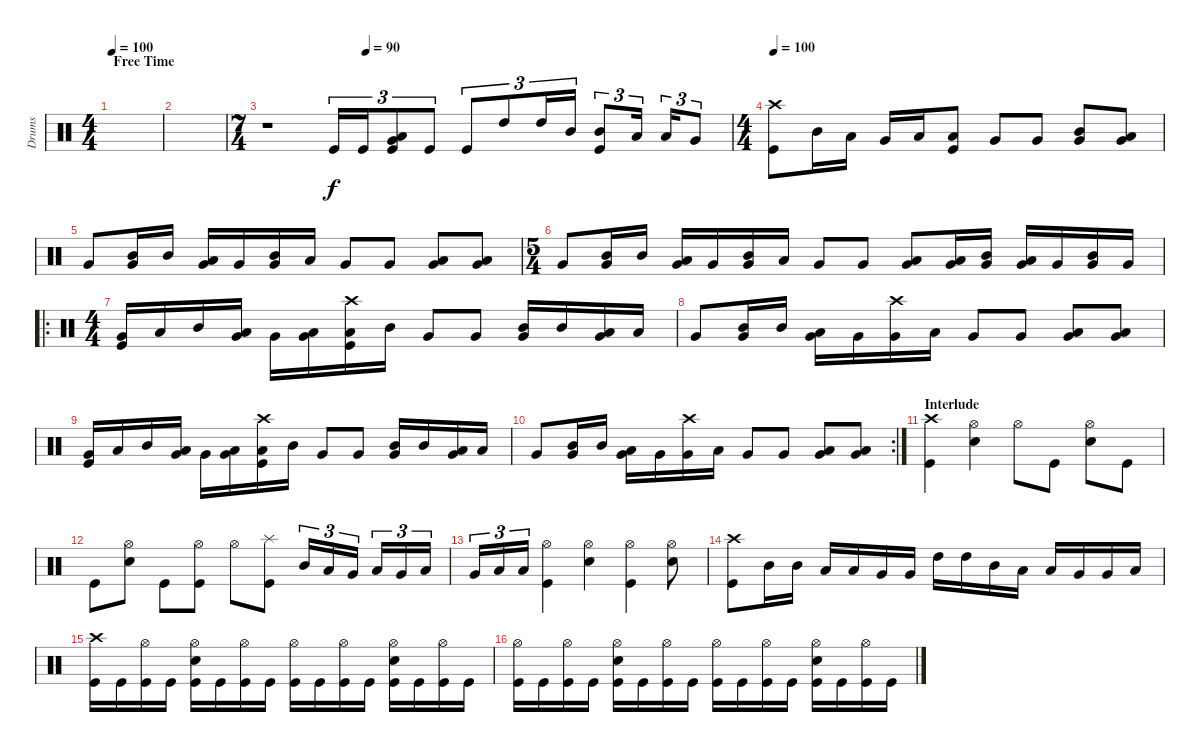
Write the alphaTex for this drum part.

\track ("Drums" "Drums") {instrument percussion}
\staff {score}
\articulation defaults
\ts (4 4)
\section ("" "Free Time")
\tempo 100
\clef neutral
\ks c
|
|
\ts (7 4)
\tempo (90 0.21428571428571427)
r.1 "Kick (hit)".16{tu (3 2)} "Kick (hit)".16{tu (3 2)} ("Very Low Tom (hit)" "Low Tom (hit)" "Kick (hit)").8{tu (3 2)} "Kick (hit)".8{tu (3 2)} "Kick (hit)".8{tu (3 2)} "High Tom (hit)".8{tu (3 2)} "High Tom (hit)".16{tu (3 2)} "Mid Tom (hit)".16{tu (3 2)} ("Mid Tom (hit)" "Kick (hit)").8{tu (3 2)} "Low Tom (hit)".16{tu (3 2)} "Low Tom (hit)".16{tu (3 2)} "Very Low Tom (hit)".8{tu (3 2)} |
\ts (4 4)
\tempo 100
("Crash high (hit)" "Kick (hit)").8 "Mid Tom (hit)".16 "Low Tom (hit)".16 "Very Low Tom (hit)".16 "Low Floor Tom (hit)".16 ("Low Tom (hit)" "Kick (hit)").8 "Very Low Tom (hit)".8 "Very Low Tom (hit)".8 ("Mid Tom (hit)" "Very Low Tom (hit)").8 ("Low Tom (hit)" "Very Low Tom (hit)").8 |
"Very Low Tom (hit)".8 ("Mid Tom (hit)" "Very Low Tom (hit)").16 "Mid Tom (hit)".16 ("Low Tom (hit)" "Very Low Tom (hit)").16 "Very Low Tom (hit)".16 ("Mid Tom (hit)" "Very Low Tom (hit)").16 "Low Tom (hit)".16 "Very Low Tom (hit)".8 "Very Low Tom (hit)".8 ("Low Tom (hit)" "Very Low Tom (hit)").8 ("Low Tom (hit)" "Very Low Tom (hit)").8 |
\ts (5 4)
"Very Low Tom (hit)".8 ("Mid Tom (hit)" "Very Low Tom (hit)").16 "Mid Tom (hit)".16 ("Low Tom (hit)" "Very Low Tom (hit)").16 "Very Low Tom (hit)".16 ("Mid Tom (hit)" "Very Low Tom (hit)").16 "Low Tom (hit)".16 "Very Low Tom (hit)".8 "Very Low Tom (hit)".8 ("Low Tom (hit)" "Very Low Tom (hit)").8 ("Low Tom (hit)" "Very Low Tom (hit)").16 ("Mid Tom (hit)" "Very Low Tom (hit)").16 ("Low Tom (hit)" "Very Low Tom (hit)").16 "Very Low Tom (hit)".16 ("Mid Tom (hit)" "Very Low Tom (hit)").16 "Very Low Tom (hit)".16 |
\ro
\ts (4 4)
("Very Low Tom (hit)" "Kick (hit)").16 "Low Floor Tom (hit)".16 "Mid Tom (hit)".16 ("Low Tom (hit)" "Very Low Tom (hit)").16 "Very Low Tom (hit)".16 ("Low Floor Tom (hit)" "Very Low Tom (hit)").16 ("Crash high (hit)" "Low Tom (hit)" "Kick (hit)").16 "Mid Tom (hit)".16 "Very Low Tom (hit)".8 "Very Low Tom (hit)".8 ("Mid Tom (hit)" "Very Low Tom (hit)").16 "Mid Tom (hit)".16 ("Low Tom (hit)" "Very Low Tom (hit)").16 "Low Tom (hit)".16 |
"Very Low Tom (hit)".8 ("Mid Tom (hit)" "Very Low Tom (hit)").16 "Mid Tom (hit)".16 ("Low Tom (hit)" "Very Low Tom (hit)").16 "Very Low Tom (hit)".16 ("Crash high (hit)" "Very Low Tom (hit)").16 "Low Tom (hit)".16 "Very Low Tom (hit)".8 "Very Low Tom (hit)".8 ("Low Tom (hit)" "Very Low Tom (hit)").8 ("Low Tom (hit)" "Very Low Tom (hit)").8 |
("Very Low Tom (hit)" "Kick (hit)").16 "Low Floor Tom (hit)".16 "Mid Tom (hit)".16 ("Low Tom (hit)" "Very Low Tom (hit)").16 "Very Low Tom (hit)".16 ("Low Floor Tom (hit)" "Very Low Tom (hit)").16 ("Crash high (hit)" "Low Tom (hit)" "Kick (hit)").16 "Mid Tom (hit)".16 "Very Low Tom (hit)".8 "Very Low Tom (hit)".8 ("Mid Tom (hit)" "Very Low Tom (hit)").16 "Mid Tom (hit)".16 ("Low Tom (hit)" "Very Low Tom (hit)").16 "Low Tom (hit)".16 |
\rc 2 "Very Low Tom (hit)".8
("Mid Tom (hit)" "Very Low Tom (hit)").16 "Mid Tom (hit)".16 ("Low Tom (hit)" "Very Low Tom (hit)").16 "Very Low Tom (hit)".16 ("Crash high (hit)" "Very Low Tom (hit)").16 "Low Tom (hit)".16 "Very Low Tom (hit)".8 "Very Low Tom (hit)".8 ("Low Tom (hit)" "Very Low Tom (hit)").8 ("Low Tom (hit)" "Very Low Tom (hit)").8 |
\section ("" "Interlude")
("Crash high (hit)" "Kick (hit)").4 ("Hi-Hat (open)" "Electric Snare (hit)").4 "Hi-Hat (open)".8 "Kick (hit)".8 ("Hi-Hat (open)" "Electric Snare (hit)").8 "Kick (hit)".8 |
"Kick (hit)".8 ("Hi-Hat (open)" "Electric Snare (hit)").8 "Kick (hit)".8 ("Hi-Hat (open)" "Kick (hit)").8 "Hi-Hat (open)".8 ("Splash (hit)" "Kick (hit)").8 "Mid Tom (hit)".16{tu (3 2)} "Low Tom (hit)".16{tu (3 2)} "Very Low Tom (hit)".16{tu (3 2)} "Low Tom (hit)".16{tu (3 2)} "Very Low Tom (hit)".16{tu (3 2)} "Low Floor Tom (hit)".16{tu (3 2)} |
"Very Low Tom (hit)".16{tu (3 2)} "Low Floor Tom (hit)".16{tu (3 2)} "Low Floor Tom (hit)".16{tu (3 2)} ("Hi-Hat (open)" "Kick (hit)").4 ("Hi-Hat (open)" "Electric Snare (hit)").4 ("Hi-Hat (open)" "Kick (hit)").4 ("Hi-Hat (open)" "Electric Snare (hit)").8 |
("Crash high (hit)" "Kick (hit)").8 "Mid Tom (hit)".16 "Mid Tom (hit)".16 "Low Tom (hit)".16 "Low Tom (hit)".16 "Very Low Tom (hit)".16 "Very Low Tom (hit)".16 "High Tom (hit)".16 "High Tom (hit)".16 "Mid Tom (hit)".16 "Low Tom (hit)".16 "Low Tom (hit)".16 "Very Low Tom (hit)".16 "Very Low Tom (hit)".16 "Low Floor Tom (hit)".16 |
("Crash high (hit)" "Kick (hit)").16 "Kick (hit)".16 ("Hi-Hat (open)" "Kick (hit)").16 "Kick (hit)".16 ("Hi-Hat (open)" "Electric Snare (hit)" "Kick (hit)").16 "Kick (hit)".16 ("Hi-Hat (open)" "Kick (hit)").16 "Kick (hit)".16 ("Hi-Hat (open)" "Kick (hit)").16 "Kick (hit)".16 ("Hi-Hat (open)" "Kick (hit)").16 "Kick (hit)".16 ("Hi-Hat (open)" "Electric Snare (hit)" "Kick (hit)").16 "Kick (hit)".16 ("Hi-Hat (open)" "Kick (hit)").16 "Kick (hit)".16 |
("Hi-Hat (open)" "Kick (hit)").16 "Kick (hit)".16 ("Hi-Hat (open)" "Kick (hit)").16 "Kick (hit)".16 ("Hi-Hat (open)" "Electric Snare (hit)" "Kick (hit)").16 "Kick (hit)".16 ("Hi-Hat (open)" "Kick (hit)").16 "Kick (hit)".16 ("Hi-Hat (open)" "Kick (hit)").16 "Kick (hit)".16 ("Hi-Hat (open)" "Kick (hit)").16 "Kick (hit)".16 ("Hi-Hat (open)" "Electric Snare (hit)" "Kick (hit)").16 "Kick (hit)".16 ("Hi-Hat (open)" "Kick (hit)").16 "Kick (hit)".16
